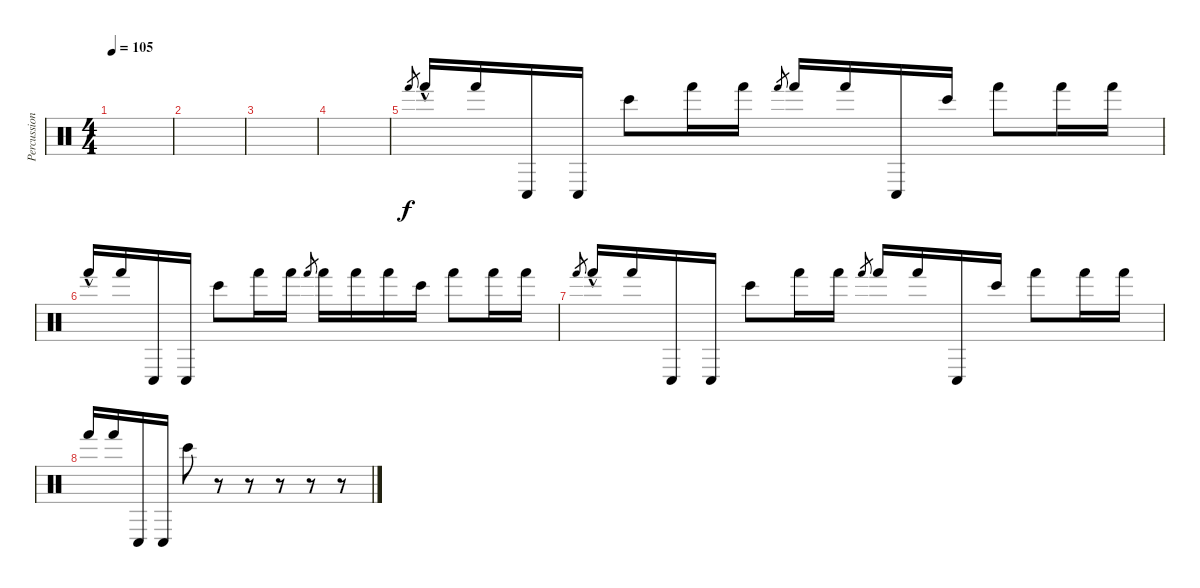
\track ("Percussioni" "Percussion") {instrument percussion}
\staff {score}
\articulation defaults
\ts (4 4)
\tempo 105
\clef neutral
\ks c
|
|
|
|
"Hand (hit)".8{gr} "Hand (hit)"{hac}.16 "Hand (hit)".16 "Conga low (hit)".16 "Conga low (hit)".16 "Bongo High (hit)".8 "Hand (hit)".16 "Hand (hit)".16 "Hand (hit)".8{gr} "Hand (hit)".16 "Hand (hit)".16 "Conga low (hit)".16 "Bongo High (hit)".16 "Hand (hit)".8 "Hand (hit)".16 "Hand (hit)".16 |
"Hand (hit)"{hac}.16 "Hand (hit)".16 "Conga low (hit)".16 "Conga low (hit)".16 "Bongo High (hit)".8 "Hand (hit)".16 "Hand (hit)".16 "Hand (hit)".8{gr} "Hand (hit)".16 "Hand (hit)".16 "Hand (hit)".16 "Bongo High (hit)".16 "Hand (hit)".8 "Hand (hit)".16 "Hand (hit)".16 |
"Hand (hit)".8{gr} "Hand (hit)"{hac}.16 "Hand (hit)".16 "Conga low (hit)".16 "Conga low (hit)".16 "Bongo High (hit)".8 "Hand (hit)".16 "Hand (hit)".16 "Hand (hit)".8{gr} "Hand (hit)".16 "Hand (hit)".16 "Conga low (hit)".16 "Bongo High (hit)".16 "Hand (hit)".8 "Hand (hit)".16 "Hand (hit)".16 |
"Hand (hit)".16 "Hand (hit)".16 "Conga low (hit)".16 "Conga low (hit)".16 "Bongo High (hit)".8 r.8 r.8 r.8 r.8 r.8
